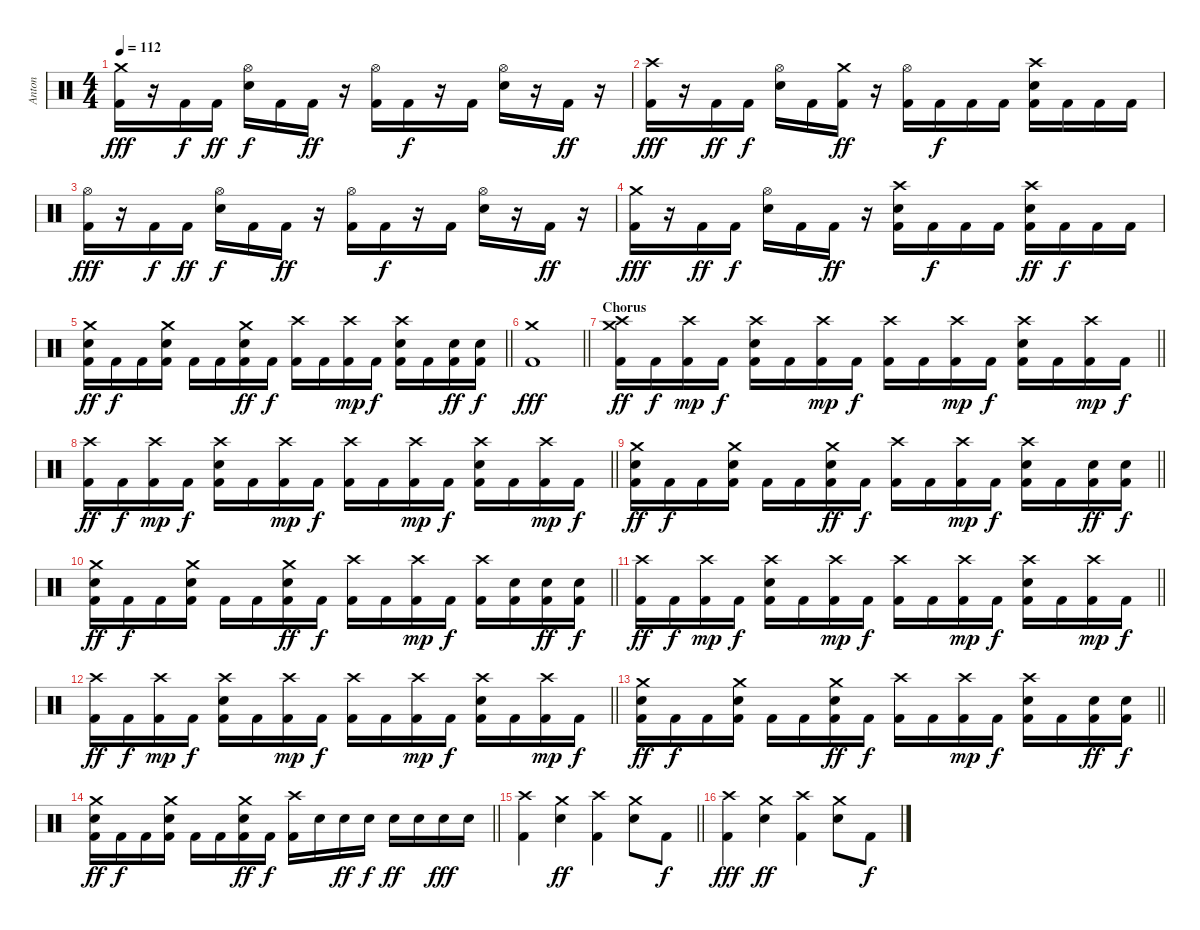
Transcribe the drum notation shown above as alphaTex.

\track ("Anton" "Anton") {instrument percussion}
\staff
\articulation defaults
\ts (4 4)
\tempo 112
\clef neutral
\ks c
("Crash medium (hit)" "Kick (hit) 2").16{dy fff} r.16 "Kick (hit) 2".16{dy f} "Kick (hit) 2".16{dy ff} ("Hi-Hat (open)" "Electric Snare (hit)").16{dy f} "Kick (hit) 2".16 "Kick (hit) 2".16{dy ff} r.16 ("Hi-Hat (open)" "Kick (hit) 2").16 "Kick (hit) 2".16{dy f} r.16 "Kick (hit) 2".16 ("Hi-Hat (open)" "Electric Snare (hit)").16 r.16 "Kick (hit) 2".16{dy ff} r.16 |
("Crash high (hit)" "Kick (hit) 2").16{dy fff} r.16 "Kick (hit) 2".16{dy ff} "Kick (hit) 2".16{dy f} ("Hi-Hat (open)" "Electric Snare (hit)").16 "Kick (hit) 2".16 ("Crash medium (hit)" "Kick (hit) 2").16{dy ff} r.16 ("Hi-Hat (open)" "Kick (hit) 2").16 "Kick (hit) 2".16{dy f} "Kick (hit) 2".16 "Kick (hit) 2".16 ("Crash high (hit)" "Electric Snare (hit)" "Kick (hit) 2").16 "Kick (hit) 2".16 "Kick (hit) 2".16 "Kick (hit) 2".16 |
("Hi-Hat (open)" "Kick (hit) 2").16{dy fff} r.16 "Kick (hit) 2".16{dy f} "Kick (hit) 2".16{dy ff} ("Hi-Hat (open)" "Electric Snare (hit)").16{dy f} "Kick (hit) 2".16 "Kick (hit) 2".16{dy ff} r.16 ("Hi-Hat (open)" "Kick (hit) 2").16 "Kick (hit) 2".16{dy f} r.16 "Kick (hit) 2".16 ("Hi-Hat (open)" "Electric Snare (hit)").16 r.16 "Kick (hit) 2".16{dy ff} r.16 |
("Crash medium (hit)" "Kick (hit) 2").16{dy fff} r.16 "Kick (hit) 2".16{dy ff} "Kick (hit) 2".16{dy f} ("Hi-Hat (open)" "Electric Snare (hit)").16 "Kick (hit) 2".16 "Kick (hit) 2".16{dy ff} r.16 ("Crash high (hit)" "Electric Snare (hit)" "Kick (hit) 2").16 "Kick (hit) 2".16{dy f} "Kick (hit) 2".16 "Kick (hit) 2".16 ("Crash high (hit)" "Electric Snare (hit)" "Kick (hit) 2").16{dy ff} "Kick (hit) 2".16{dy f} "Kick (hit) 2".16 "Kick (hit) 2".16 |
\barLineRight lightlight
("Crash medium (hit)" "Electric Snare (hit)" "Kick (hit) 2").16{dy ff} "Kick (hit) 2".16{dy f} "Kick (hit) 2".16 ("Crash medium (hit)" "Electric Snare (hit)" "Kick (hit) 2").16 "Kick (hit) 2".16 "Kick (hit) 2".16 ("Crash medium (hit)" "Electric Snare (hit)" "Kick (hit) 2").16{dy ff} "Kick (hit) 2".16{dy f} ("Crash high (hit)" "Kick (hit) 2").16 "Kick (hit) 2".16 ("Crash high (hit)" "Kick (hit) 2").16{dy mp} "Kick (hit) 2".16{dy f} ("Crash high (hit)" "Electric Snare (hit)" "Kick (hit) 2").16 "Kick (hit) 2".16 ("Electric Snare (hit)" "Kick (hit) 2").16{dy ff} ("Electric Snare (hit)" "Kick (hit) 2").16{dy f} |
\barLineRight lightlight
("Crash medium (hit)" "Kick (hit) 2").1{dy fff} |
\section ("" "Chorus")
\barLineRight lightlight
("Crash medium (hit)" "Crash high (hit)" "Kick (hit) 2").16{dy ff} "Kick (hit) 2".16{dy f} ("Crash high (hit)" "Kick (hit) 2").16{dy mp} "Kick (hit) 2".16{dy f} ("Crash high (hit)" "Electric Snare (hit)" "Kick (hit) 2").16 "Kick (hit) 2".16 ("Crash high (hit)" "Kick (hit) 2").16{dy mp} "Kick (hit) 2".16{dy f} ("Crash high (hit)" "Kick (hit) 2").16 "Kick (hit) 2".16 ("Crash high (hit)" "Kick (hit) 2").16{dy mp} "Kick (hit) 2".16{dy f} ("Crash high (hit)" "Electric Snare (hit)" "Kick (hit) 2").16 "Kick (hit) 2".16 ("Crash high (hit)" "Kick (hit) 2").16{dy mp} "Kick (hit) 2".16{dy f} |
\barLineRight lightlight
("Crash high (hit)" "Kick (hit) 2").16{dy ff} "Kick (hit) 2".16{dy f} ("Crash high (hit)" "Kick (hit) 2").16{dy mp} "Kick (hit) 2".16{dy f} ("Crash high (hit)" "Electric Snare (hit)" "Kick (hit) 2").16 "Kick (hit) 2".16 ("Crash high (hit)" "Kick (hit) 2").16{dy mp} "Kick (hit) 2".16{dy f} ("Crash high (hit)" "Kick (hit) 2").16 "Kick (hit) 2".16 ("Crash high (hit)" "Kick (hit) 2").16{dy mp} "Kick (hit) 2".16{dy f} ("Crash high (hit)" "Electric Snare (hit)" "Kick (hit) 2").16 "Kick (hit) 2".16 ("Crash high (hit)" "Kick (hit) 2").16{dy mp} "Kick (hit) 2".16{dy f} |
\barLineRight lightlight
("Crash medium (hit)" "Electric Snare (hit)" "Kick (hit) 2").16{dy ff} "Kick (hit) 2".16{dy f} "Kick (hit) 2".16 ("Crash medium (hit)" "Electric Snare (hit)" "Kick (hit) 2").16 "Kick (hit) 2".16 "Kick (hit) 2".16 ("Crash medium (hit)" "Electric Snare (hit)" "Kick (hit) 2").16{dy ff} "Kick (hit) 2".16{dy f} ("Crash high (hit)" "Kick (hit) 2").16 "Kick (hit) 2".16 ("Crash high (hit)" "Kick (hit) 2").16{dy mp} "Kick (hit) 2".16{dy f} ("Crash high (hit)" "Electric Snare (hit)" "Kick (hit) 2").16 "Kick (hit) 2".16 ("Electric Snare (hit)" "Kick (hit) 2").16{dy ff} ("Electric Snare (hit)" "Kick (hit) 2").16{dy f} |
\barLineRight lightlight
("Crash medium (hit)" "Electric Snare (hit)" "Kick (hit) 2").16{dy ff} "Kick (hit) 2".16{dy f} "Kick (hit) 2".16 ("Crash medium (hit)" "Electric Snare (hit)" "Kick (hit) 2").16 "Kick (hit) 2".16 "Kick (hit) 2".16 ("Crash medium (hit)" "Electric Snare (hit)" "Kick (hit) 2").16{dy ff} "Kick (hit) 2".16{dy f} ("Crash high (hit)" "Kick (hit) 2").16 "Kick (hit) 2".16 ("Crash high (hit)" "Kick (hit) 2").16{dy mp} "Kick (hit) 2".16{dy f} ("Crash high (hit)" "Kick (hit) 2").16 ("Electric Snare (hit)" "Kick (hit) 2").16 ("Electric Snare (hit)" "Kick (hit) 2").16{dy ff} ("Electric Snare (hit)" "Kick (hit) 2").16{dy f} |
\barLineRight lightlight
("Crash high (hit)" "Kick (hit) 2").16{dy ff} "Kick (hit) 2".16{dy f} ("Crash high (hit)" "Kick (hit) 2").16{dy mp} "Kick (hit) 2".16{dy f} ("Crash high (hit)" "Electric Snare (hit)" "Kick (hit) 2").16 "Kick (hit) 2".16 ("Crash high (hit)" "Kick (hit) 2").16{dy mp} "Kick (hit) 2".16{dy f} ("Crash high (hit)" "Kick (hit) 2").16 "Kick (hit) 2".16 ("Crash high (hit)" "Kick (hit) 2").16{dy mp} "Kick (hit) 2".16{dy f} ("Crash high (hit)" "Electric Snare (hit)" "Kick (hit) 2").16 "Kick (hit) 2".16 ("Crash high (hit)" "Kick (hit) 2").16{dy mp} "Kick (hit) 2".16{dy f} |
\barLineRight lightlight
("Crash high (hit)" "Kick (hit) 2").16{dy ff} "Kick (hit) 2".16{dy f} ("Crash high (hit)" "Kick (hit) 2").16{dy mp} "Kick (hit) 2".16{dy f} ("Crash high (hit)" "Electric Snare (hit)" "Kick (hit) 2").16 "Kick (hit) 2".16 ("Crash high (hit)" "Kick (hit) 2").16{dy mp} "Kick (hit) 2".16{dy f} ("Crash high (hit)" "Kick (hit) 2").16 "Kick (hit) 2".16 ("Crash high (hit)" "Kick (hit) 2").16{dy mp} "Kick (hit) 2".16{dy f} ("Crash high (hit)" "Electric Snare (hit)" "Kick (hit) 2").16 "Kick (hit) 2".16 ("Crash high (hit)" "Kick (hit) 2").16{dy mp} "Kick (hit) 2".16{dy f} |
\barLineRight lightlight
("Crash medium (hit)" "Electric Snare (hit)" "Kick (hit) 2").16{dy ff} "Kick (hit) 2".16{dy f} "Kick (hit) 2".16 ("Crash medium (hit)" "Electric Snare (hit)" "Kick (hit) 2").16 "Kick (hit) 2".16 "Kick (hit) 2".16 ("Crash medium (hit)" "Electric Snare (hit)" "Kick (hit) 2").16{dy ff} "Kick (hit) 2".16{dy f} ("Crash high (hit)" "Kick (hit) 2").16 "Kick (hit) 2".16 ("Crash high (hit)" "Kick (hit) 2").16{dy mp} "Kick (hit) 2".16{dy f} ("Crash high (hit)" "Electric Snare (hit)" "Kick (hit) 2").16 "Kick (hit) 2".16 ("Electric Snare (hit)" "Kick (hit) 2").16{dy ff} ("Electric Snare (hit)" "Kick (hit) 2").16{dy f} |
\barLineRight lightlight
("Crash medium (hit)" "Electric Snare (hit)" "Kick (hit) 2").16{dy ff} "Kick (hit) 2".16{dy f} "Kick (hit) 2".16 ("Crash medium (hit)" "Electric Snare (hit)" "Kick (hit) 2").16 "Kick (hit) 2".16 "Kick (hit) 2".16 ("Crash medium (hit)" "Electric Snare (hit)" "Kick (hit) 2").16{dy ff} "Kick (hit) 2".16{dy f} ("Crash high (hit)" "Kick (hit) 2").16 "Electric Snare (hit)".16 "Electric Snare (hit)".16{dy ff} "Electric Snare (hit)".16{dy f} "Electric Snare (hit)".16{dy ff} "Electric Snare (hit)".16 "Electric Snare (hit)".16{dy fff} "Electric Snare (hit)".16 |
\barLineRight lightlight
("Crash high (hit)" "Kick (hit) 2").4 ("Crash medium (hit)" "Electric Snare (hit)").4{dy ff} ("Crash high (hit)" "Kick (hit) 2").4 ("Crash medium (hit)" "Electric Snare (hit)").8 "Kick (hit) 2".8{dy f} |
("Crash high (hit)" "Kick (hit) 2").4{dy fff} ("Crash medium (hit)" "Electric Snare (hit)").4{dy ff} ("Crash high (hit)" "Kick (hit) 2").4 ("Crash medium (hit)" "Electric Snare (hit)").8 "Kick (hit) 2".8{dy f}
